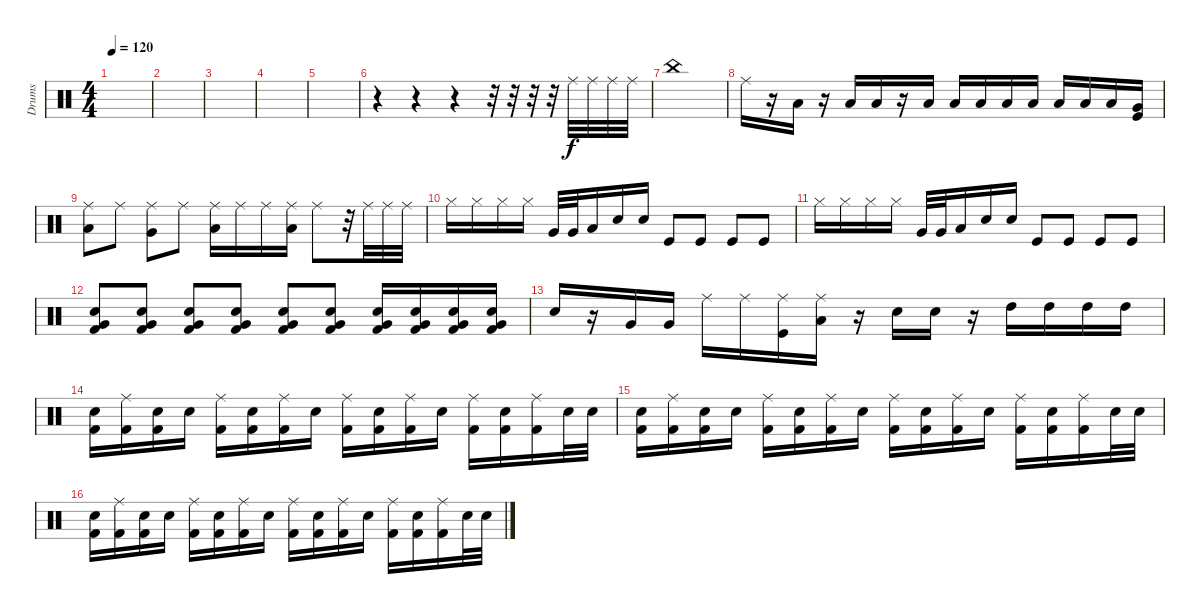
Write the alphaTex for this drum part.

\track ("Drums" "Drums") {instrument percussion}
\staff {score}
\articulation defaults
\ts (4 4)
\tempo 120
\clef neutral
\ks c
|
|
|
|
|
r.4 r.4 r.4 r.32 r.32 r.32 r.32 "Ride (middle)".32 "Ride (middle)".32 "Ride (middle)".32 "Ride (middle)".32 |
"China (hit)".1 |
"Ride (middle)".16 r.16 "Low Floor Tom (hit)".16 r.16 "Low Floor Tom (hit)".16 "Low Floor Tom (hit)".16 r.16 "Low Floor Tom (hit)".16 "Low Floor Tom (hit)".16 "Low Floor Tom (hit)".16 "Low Floor Tom (hit)".16 "Low Floor Tom (hit)".16 "Low Floor Tom (hit)".16 "Low Floor Tom (hit)".16 "Low Floor Tom (hit)".16 ("Kick (hit)" "Very Low Tom (hit)").16 |
("Low Tom (hit)" "Ride (middle)").8 "Ride (middle)".8 ("Very Low Tom (hit)" "Ride (middle)").8 "Ride (middle)".8 ("Low Tom (hit)" "Ride (middle)").16 "Ride (middle)".16 "Ride (middle)".16 ("Low Tom (hit)" "Ride (middle)").16 "Ride (middle)".8 r.32 "Ride (middle)".32 "Ride (middle)".32 "Ride (middle)".32 |
"Hi-Hat (closed)".16 "Hi-Hat (closed)".16 "Hi-Hat (closed)".16 "Hi-Hat (closed)".16 "Very Low Tom (hit)".32 "Very Low Tom (hit)".32 "Low Floor Tom (hit)".16 "Electric Snare (hit)".16 "Electric Snare (hit)".16 "Kick (hit)".8 "Kick (hit)".8 "Kick (hit)".8 "Kick (hit)".8 |
"Hi-Hat (closed)".16 "Hi-Hat (closed)".16 "Hi-Hat (closed)".16 "Hi-Hat (closed)".16 "Very Low Tom (hit)".32 "Very Low Tom (hit)".32 "Low Floor Tom (hit)".16 "Electric Snare (hit)".16 "Electric Snare (hit)".16 "Kick (hit)".8 "Kick (hit)".8 "Kick (hit)".8 "Kick (hit)".8 |
("Kick (hit) 2" "Very Low Tom (hit)" "Electric Snare (hit)").8 ("Kick (hit) 2" "Very Low Tom (hit)" "Electric Snare (hit)").8 ("Kick (hit) 2" "Very Low Tom (hit)" "Electric Snare (hit)").8 ("Kick (hit) 2" "Very Low Tom (hit)" "Electric Snare (hit)").8 ("Kick (hit) 2" "Very Low Tom (hit)" "Electric Snare (hit)").8 ("Kick (hit) 2" "Very Low Tom (hit)" "Electric Snare (hit)").8 ("Kick (hit) 2" "Very Low Tom (hit)" "Electric Snare (hit)").16 ("Kick (hit) 2" "Very Low Tom (hit)" "Electric Snare (hit)").16 ("Kick (hit) 2" "Very Low Tom (hit)" "Electric Snare (hit)").16 ("Kick (hit) 2" "Very Low Tom (hit)" "Electric Snare (hit)").16 |
"Snare (hit) 2".16 r.16 "Very Low Tom (hit)".16 "Very Low Tom (hit)".16 "Ride (middle)".16 "Ride (middle)".16 ("Kick (hit)" "Ride (middle)").16 ("Low Tom (hit)" "Ride (middle)").16 r.16 "Electric Snare (hit)".16 "Electric Snare (hit)".16 r.16 "High Tom (hit)".16 "High Tom (hit)".16 "High Tom (hit)".16 "High Tom (hit)".16 |
("Electric Snare (hit)" "Kick (hit) 2").16 ("Ride (middle)" "Kick (hit) 2").16 ("Electric Snare (hit)" "Kick (hit) 2").16 "Snare (hit) 2".16 ("Ride (middle)" "Kick (hit) 2").16 ("Electric Snare (hit)" "Kick (hit) 2").16 ("Ride (middle)" "Kick (hit) 2").16 "Snare (hit) 2".16 ("Ride (middle)" "Kick (hit) 2").16 ("Electric Snare (hit)" "Kick (hit) 2").16 ("Ride (middle)" "Kick (hit) 2").16 "Snare (hit) 2".16 ("Ride (middle)" "Kick (hit) 2").16 ("Electric Snare (hit)" "Kick (hit) 2").16 ("Ride (middle)" "Kick (hit) 2").16 "Electric Snare (hit)".32 "Electric Snare (hit)".32 |
("Electric Snare (hit)" "Kick (hit) 2").16 ("Ride (middle)" "Kick (hit) 2").16 ("Electric Snare (hit)" "Kick (hit) 2").16 "Snare (hit) 2".16 ("Ride (middle)" "Kick (hit) 2").16 ("Electric Snare (hit)" "Kick (hit) 2").16 ("Ride (middle)" "Kick (hit) 2").16 "Snare (hit) 2".16 ("Ride (middle)" "Kick (hit) 2").16 ("Electric Snare (hit)" "Kick (hit) 2").16 ("Ride (middle)" "Kick (hit) 2").16 "Snare (hit) 2".16 ("Ride (middle)" "Kick (hit) 2").16 ("Electric Snare (hit)" "Kick (hit) 2").16 ("Ride (middle)" "Kick (hit) 2").16 "Electric Snare (hit)".32 "Electric Snare (hit)".32 |
("Electric Snare (hit)" "Kick (hit) 2").16 ("Ride (middle)" "Kick (hit) 2").16 ("Electric Snare (hit)" "Kick (hit) 2").16 "Snare (hit) 2".16 ("Ride (middle)" "Kick (hit) 2").16 ("Electric Snare (hit)" "Kick (hit) 2").16 ("Ride (middle)" "Kick (hit) 2").16 "Snare (hit) 2".16 ("Ride (middle)" "Kick (hit) 2").16 ("Electric Snare (hit)" "Kick (hit) 2").16 ("Ride (middle)" "Kick (hit) 2").16 "Snare (hit) 2".16 ("Ride (middle)" "Kick (hit) 2").16 ("Electric Snare (hit)" "Kick (hit) 2").16 ("Ride (middle)" "Kick (hit) 2").16 "Electric Snare (hit)".32 "Electric Snare (hit)".32
